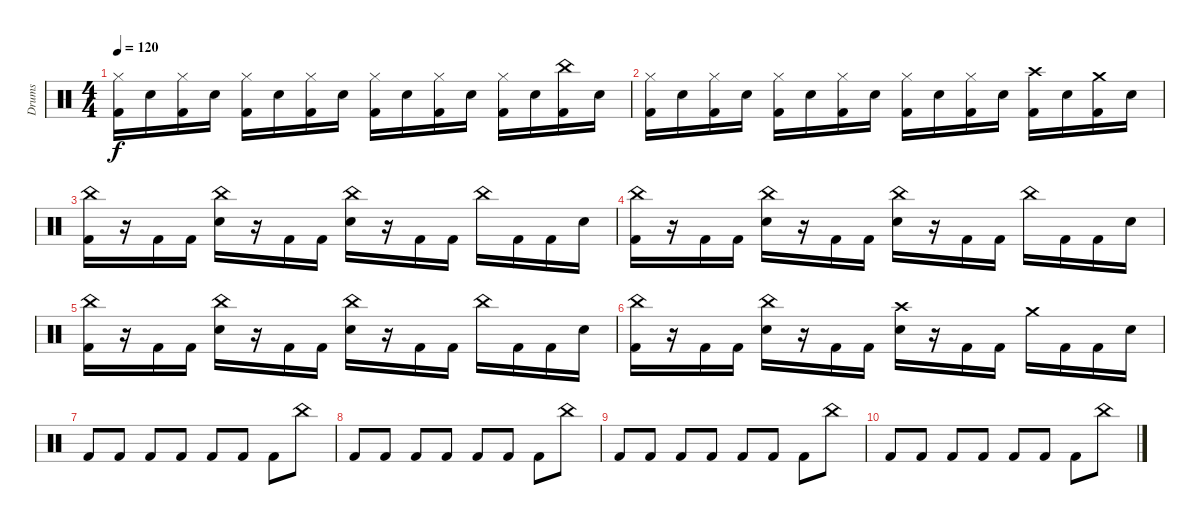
\track ("Drums" "Drums") {instrument percussion}
\staff {score}
\articulation defaults
\ts (4 4)
\tempo 120
\clef neutral
\ks c
("Hi-Hat (closed)" "Kick (hit) 2").16{dy f} "Snare (hit) 2".16 ("Hi-Hat (closed)" "Kick (hit) 2").16 "Snare (hit) 2".16 ("Hi-Hat (closed)" "Kick (hit) 2").16 "Snare (hit) 2".16 ("Hi-Hat (closed)" "Kick (hit) 2").16 "Snare (hit) 2".16 ("Hi-Hat (closed)" "Kick (hit) 2").16 "Snare (hit) 2".16 ("Hi-Hat (closed)" "Kick (hit) 2").16 "Snare (hit) 2".16 ("Hi-Hat (closed)" "Kick (hit) 2").16 "Snare (hit) 2".16 ("China (hit)" "Kick (hit) 2").16 "Snare (hit) 2".16 |
("Hi-Hat (closed)" "Kick (hit) 2").16 "Snare (hit) 2".16 ("Hi-Hat (closed)" "Kick (hit) 2").16 "Snare (hit) 2".16 ("Hi-Hat (closed)" "Kick (hit) 2").16 "Snare (hit) 2".16 ("Hi-Hat (closed)" "Kick (hit) 2").16 "Snare (hit) 2".16 ("Hi-Hat (closed)" "Kick (hit) 2").16 "Snare (hit) 2".16 ("Hi-Hat (closed)" "Kick (hit) 2").16 "Snare (hit) 2".16 ("Crash high (hit)" "Kick (hit) 2").16 "Snare (hit) 2".16 ("Crash medium (hit)" "Kick (hit) 2").16 "Snare (hit) 2".16 |
("China (hit)" "Kick (hit) 2").16 r.16 "Kick (hit) 2".16 "Kick (hit) 2".16 ("China (hit)" "Snare (hit) 2").16 r.16 "Kick (hit) 2".16 "Kick (hit) 2".16 ("China (hit)" "Snare (hit) 2").16 r.16 "Kick (hit) 2".16 "Kick (hit) 2".16 "China (hit)".16 "Kick (hit) 2".16 "Kick (hit) 2".16 "Snare (hit) 2".16 |
("China (hit)" "Kick (hit) 2").16 r.16 "Kick (hit) 2".16 "Kick (hit) 2".16 ("China (hit)" "Snare (hit) 2").16 r.16 "Kick (hit) 2".16 "Kick (hit) 2".16 ("China (hit)" "Snare (hit) 2").16 r.16 "Kick (hit) 2".16 "Kick (hit) 2".16 "China (hit)".16 "Kick (hit) 2".16 "Kick (hit) 2".16 "Snare (hit) 2".16 |
("China (hit)" "Kick (hit) 2").16 r.16 "Kick (hit) 2".16 "Kick (hit) 2".16 ("China (hit)" "Snare (hit) 2").16 r.16 "Kick (hit) 2".16 "Kick (hit) 2".16 ("China (hit)" "Snare (hit) 2").16 r.16 "Kick (hit) 2".16 "Kick (hit) 2".16 "China (hit)".16 "Kick (hit) 2".16 "Kick (hit) 2".16 "Snare (hit) 2".16 |
("China (hit)" "Kick (hit) 2").16 r.16 "Kick (hit) 2".16 "Kick (hit) 2".16 ("China (hit)" "Snare (hit) 2").16 r.16 "Kick (hit) 2".16 "Kick (hit) 2".16 ("Crash high (hit)" "Snare (hit) 2").16 r.16 "Kick (hit) 2".16 "Kick (hit) 2".16 "Crash medium (hit)".16 "Kick (hit) 2".16 "Kick (hit) 2".16 "Snare (hit) 2".16 |
"Kick (hit) 2".8 "Kick (hit) 2".8 "Kick (hit) 2".8 "Kick (hit) 2".8 "Kick (hit) 2".8 "Kick (hit) 2".8 "Kick (hit) 2".8 "China (hit)".8 |
"Kick (hit) 2".8 "Kick (hit) 2".8 "Kick (hit) 2".8 "Kick (hit) 2".8 "Kick (hit) 2".8 "Kick (hit) 2".8 "Kick (hit) 2".8 "China (hit)".8 |
"Kick (hit) 2".8 "Kick (hit) 2".8 "Kick (hit) 2".8 "Kick (hit) 2".8 "Kick (hit) 2".8 "Kick (hit) 2".8 "Kick (hit) 2".8 "China (hit)".8 |
"Kick (hit) 2".8 "Kick (hit) 2".8 "Kick (hit) 2".8 "Kick (hit) 2".8 "Kick (hit) 2".8 "Kick (hit) 2".8 "Kick (hit) 2".8 "China (hit)".8
